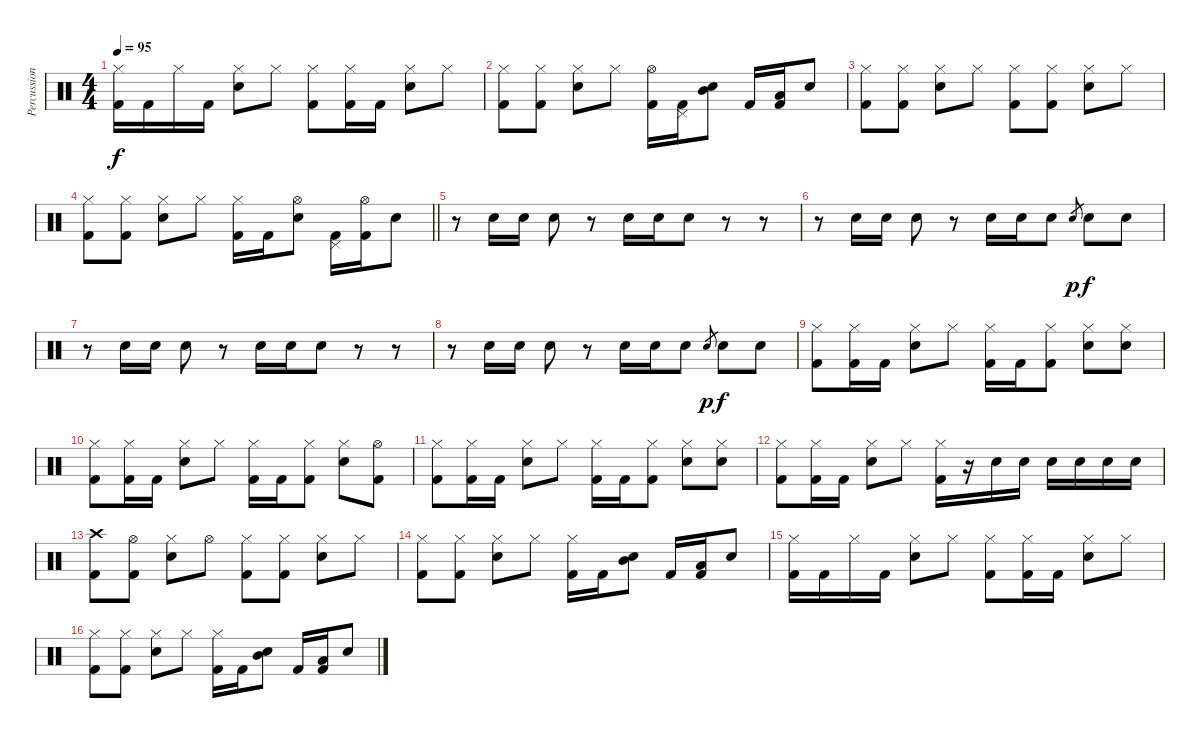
\track ("Percussion" "Percussion") {instrument percussion}
\staff {score}
\articulation defaults
\ts (4 4)
\tempo 95
\clef neutral
\ks c
("Hi-Hat (closed)" "Kick (hit) 2").16{dy f} "Kick (hit) 2".16 "Hi-Hat (closed)".16 "Kick (hit) 2".16 ("Hi-Hat (closed)" "Snare (hit) 2").8 "Hi-Hat (closed)".8 ("Hi-Hat (closed)" "Kick (hit) 2").8 ("Hi-Hat (closed)" "Kick (hit) 2").16 "Kick (hit) 2".16 ("Hi-Hat (closed)" "Snare (hit) 2").8 "Hi-Hat (closed)".8 |
("Hi-Hat (closed)" "Kick (hit) 2").8 ("Hi-Hat (closed)" "Kick (hit) 2").8 ("Hi-Hat (closed)" "Snare (hit) 2").8 "Hi-Hat (closed)".8 ("Hi-Hat (open)" "Kick (hit) 2").16 ("Pedal Hi-Hat (hit)" "Kick (hit) 2").16 ("Mid Tom (hit)" "Snare (hit) 2").8 "Kick (hit) 2".16 ("Low Tom (hit)" "Kick (hit) 2").16 "Snare (hit) 2".8 |
("Hi-Hat (closed)" "Kick (hit) 2").8 ("Hi-Hat (closed)" "Kick (hit) 2").8 ("Hi-Hat (closed)" "Snare (hit) 2").8 "Hi-Hat (closed)".8 ("Hi-Hat (closed)" "Kick (hit) 2").8 ("Hi-Hat (closed)" "Kick (hit) 2").8 ("Hi-Hat (closed)" "Snare (hit) 2").8 "Hi-Hat (closed)".8 |
\barLineRight lightlight
("Hi-Hat (closed)" "Kick (hit) 2").8 ("Hi-Hat (closed)" "Kick (hit) 2").8 ("Hi-Hat (closed)" "Snare (hit) 2").8 "Hi-Hat (closed)".8 ("Hi-Hat (closed)" "Kick (hit) 2").16 "Kick (hit) 2".16 ("Hi-Hat (open)" "Snare (hit) 2").8 ("Pedal Hi-Hat (hit)" "Kick (hit) 2").16 ("Hi-Hat (open)" "Kick (hit) 2").16 "Snare (hit) 2".8 |
r.8 "Snare (hit) 2".16 "Snare (hit) 2".16 "Snare (hit) 2".8 r.8 "Snare (hit) 2".16 "Snare (hit) 2".16 "Snare (hit) 2".8 r.8 r.8 |
r.8 "Snare (hit) 2".16 "Snare (hit) 2".16 "Snare (hit) 2".8 r.8 "Snare (hit) 2".16 "Snare (hit) 2".16 "Snare (hit) 2".8 "Snare (hit) 2".8{gr dy p} "Snare (hit) 2".8{dy f} "Snare (hit) 2".8 |
r.8 "Snare (hit) 2".16 "Snare (hit) 2".16 "Snare (hit) 2".8 r.8 "Snare (hit) 2".16 "Snare (hit) 2".16 "Snare (hit) 2".8 r.8 r.8 |
r.8 "Snare (hit) 2".16 "Snare (hit) 2".16 "Snare (hit) 2".8 r.8 "Snare (hit) 2".16 "Snare (hit) 2".16 "Snare (hit) 2".8 "Snare (hit) 2".8{gr dy p} "Snare (hit) 2".8{dy f} "Snare (hit) 2".8 |
("Hi-Hat (closed)" "Kick (hit) 2").8 ("Hi-Hat (closed)" "Kick (hit) 2").16 "Kick (hit) 2".16 ("Hi-Hat (closed)" "Snare (hit) 2").8 "Hi-Hat (closed)".8 ("Hi-Hat (closed)" "Kick (hit) 2").16 "Kick (hit) 2".16 ("Hi-Hat (closed)" "Kick (hit) 2").8 ("Hi-Hat (closed)" "Snare (hit) 2").8 ("Hi-Hat (closed)" "Snare (hit) 2").8 |
("Hi-Hat (closed)" "Kick (hit) 2").8 ("Hi-Hat (closed)" "Kick (hit) 2").16 "Kick (hit) 2".16 ("Hi-Hat (closed)" "Snare (hit) 2").8 "Hi-Hat (closed)".8 ("Hi-Hat (closed)" "Kick (hit) 2").16 "Kick (hit) 2".16 ("Hi-Hat (closed)" "Kick (hit) 2").8 ("Hi-Hat (closed)" "Snare (hit) 2").8 ("Hi-Hat (open)" "Kick (hit) 2").8 |
("Hi-Hat (closed)" "Kick (hit) 2").8 ("Hi-Hat (closed)" "Kick (hit) 2").16 "Kick (hit) 2".16 ("Hi-Hat (closed)" "Snare (hit) 2").8 "Hi-Hat (closed)".8 ("Hi-Hat (closed)" "Kick (hit) 2").16 "Kick (hit) 2".16 ("Hi-Hat (closed)" "Kick (hit) 2").8 ("Hi-Hat (closed)" "Snare (hit) 2").8 ("Hi-Hat (closed)" "Snare (hit) 2").8 |
("Hi-Hat (closed)" "Kick (hit) 2").8 ("Hi-Hat (closed)" "Kick (hit) 2").16 "Kick (hit) 2".16 ("Hi-Hat (closed)" "Snare (hit) 2").8 "Hi-Hat (closed)".8 ("Hi-Hat (closed)" "Kick (hit) 2").16 r.16 "Snare (hit) 2".16 "Snare (hit) 2".16 "Snare (hit) 2".16 "Snare (hit) 2".16 "Snare (hit) 2".16 "Snare (hit) 2".16 |
("Crash high (hit)" "Kick (hit) 2").8 ("Hi-Hat (open)" "Kick (hit) 2").8 ("Hi-Hat (closed)" "Snare (hit) 2").8 "Hi-Hat (open)".8 ("Hi-Hat (closed)" "Kick (hit) 2").8 ("Hi-Hat (closed)" "Kick (hit) 2").8 ("Hi-Hat (closed)" "Snare (hit) 2").8 "Hi-Hat (closed)".8 |
("Hi-Hat (closed)" "Kick (hit) 2").8 ("Hi-Hat (closed)" "Kick (hit) 2").8 ("Hi-Hat (closed)" "Snare (hit) 2").8 "Hi-Hat (closed)".8 ("Hi-Hat (closed)" "Kick (hit) 2").16 "Kick (hit) 2".16 ("Mid Tom (hit)" "Snare (hit) 2").8 "Kick (hit) 2".16 ("Low Tom (hit)" "Kick (hit) 2").16 "Snare (hit) 2".8 |
("Hi-Hat (closed)" "Kick (hit) 2").16 "Kick (hit) 2".16 "Hi-Hat (closed)".16 "Kick (hit) 2".16 ("Hi-Hat (closed)" "Snare (hit) 2").8 "Hi-Hat (closed)".8 ("Hi-Hat (closed)" "Kick (hit) 2").8 ("Hi-Hat (closed)" "Kick (hit) 2").16 "Kick (hit) 2".16 ("Hi-Hat (closed)" "Snare (hit) 2").8 "Hi-Hat (closed)".8 |
("Hi-Hat (closed)" "Kick (hit) 2").8 ("Hi-Hat (closed)" "Kick (hit) 2").8 ("Hi-Hat (closed)" "Snare (hit) 2").8 "Hi-Hat (closed)".8 ("Hi-Hat (closed)" "Kick (hit) 2").16 "Kick (hit) 2".16 ("Mid Tom (hit)" "Snare (hit) 2").8 "Kick (hit) 2".16 ("Low Tom (hit)" "Kick (hit) 2").16 "Snare (hit) 2".8
